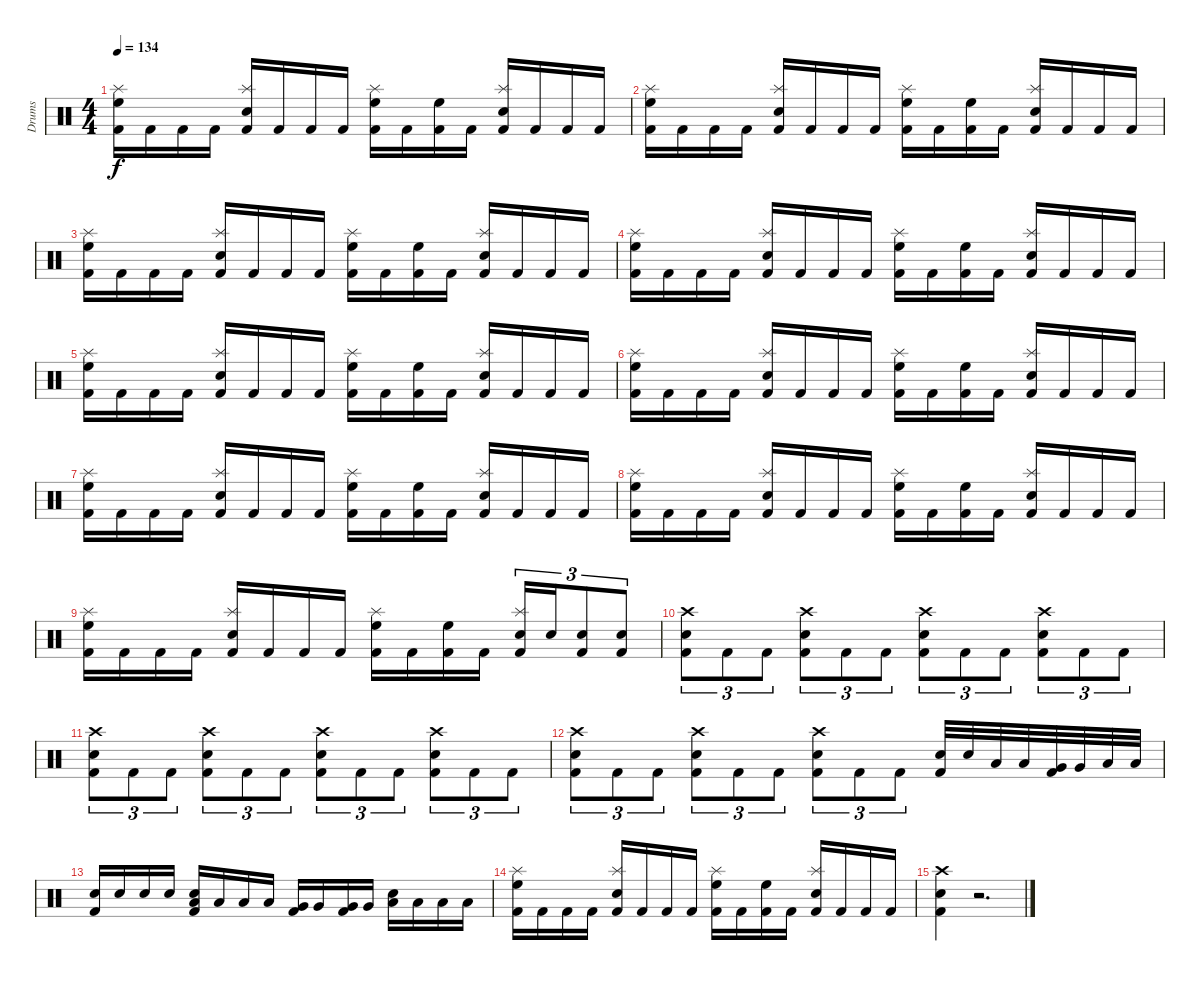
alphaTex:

\track ("Drums" "Drums") {instrument percussion}
\staff {score}
\articulation defaults
\ts (4 4)
\tempo 134
\clef neutral
\ks c
("Kick (hit) 2" "Splash (hit)" "High Floor Tom (hit)").16{dy f} "Kick (hit) 2".16 "Kick (hit) 2".16 "Kick (hit) 2".16 ("Kick (hit) 2" "Splash (hit)" "Electric Snare (hit)").16 "Kick (hit) 2".16 "Kick (hit) 2".16 "Kick (hit) 2".16 ("Kick (hit) 2" "Splash (hit)" "High Floor Tom (hit)").16 "Kick (hit) 2".16 ("Kick (hit) 2" "High Floor Tom (hit)").16 "Kick (hit) 2".16 ("Kick (hit) 2" "Splash (hit)" "Electric Snare (hit)").16 "Kick (hit) 2".16 "Kick (hit) 2".16 "Kick (hit) 2".16 |
("Kick (hit) 2" "Splash (hit)" "High Floor Tom (hit)").16 "Kick (hit) 2".16 "Kick (hit) 2".16 "Kick (hit) 2".16 ("Kick (hit) 2" "Splash (hit)" "Electric Snare (hit)").16 "Kick (hit) 2".16 "Kick (hit) 2".16 "Kick (hit) 2".16 ("Kick (hit) 2" "Splash (hit)" "High Floor Tom (hit)").16 "Kick (hit) 2".16 ("Kick (hit) 2" "High Floor Tom (hit)").16 "Kick (hit) 2".16 ("Kick (hit) 2" "Splash (hit)" "Electric Snare (hit)").16 "Kick (hit) 2".16 "Kick (hit) 2".16 "Kick (hit) 2".16 |
("Kick (hit) 2" "Splash (hit)" "High Floor Tom (hit)").16 "Kick (hit) 2".16 "Kick (hit) 2".16 "Kick (hit) 2".16 ("Kick (hit) 2" "Splash (hit)" "Electric Snare (hit)").16 "Kick (hit) 2".16 "Kick (hit) 2".16 "Kick (hit) 2".16 ("Kick (hit) 2" "Splash (hit)" "High Floor Tom (hit)").16 "Kick (hit) 2".16 ("Kick (hit) 2" "High Floor Tom (hit)").16 "Kick (hit) 2".16 ("Kick (hit) 2" "Splash (hit)" "Electric Snare (hit)").16 "Kick (hit) 2".16 "Kick (hit) 2".16 "Kick (hit) 2".16 |
("Kick (hit) 2" "Splash (hit)" "High Floor Tom (hit)").16 "Kick (hit) 2".16 "Kick (hit) 2".16 "Kick (hit) 2".16 ("Kick (hit) 2" "Splash (hit)" "Electric Snare (hit)").16 "Kick (hit) 2".16 "Kick (hit) 2".16 "Kick (hit) 2".16 ("Kick (hit) 2" "Splash (hit)" "High Floor Tom (hit)").16 "Kick (hit) 2".16 ("Kick (hit) 2" "High Floor Tom (hit)").16 "Kick (hit) 2".16 ("Kick (hit) 2" "Splash (hit)" "Electric Snare (hit)").16 "Kick (hit) 2".16 "Kick (hit) 2".16 "Kick (hit) 2".16 |
("Kick (hit) 2" "Splash (hit)" "High Floor Tom (hit)").16 "Kick (hit) 2".16 "Kick (hit) 2".16 "Kick (hit) 2".16 ("Kick (hit) 2" "Splash (hit)" "Electric Snare (hit)").16 "Kick (hit) 2".16 "Kick (hit) 2".16 "Kick (hit) 2".16 ("Kick (hit) 2" "Splash (hit)" "High Floor Tom (hit)").16 "Kick (hit) 2".16 ("Kick (hit) 2" "High Floor Tom (hit)").16 "Kick (hit) 2".16 ("Kick (hit) 2" "Splash (hit)" "Electric Snare (hit)").16 "Kick (hit) 2".16 "Kick (hit) 2".16 "Kick (hit) 2".16 |
("Kick (hit) 2" "Splash (hit)" "High Floor Tom (hit)").16 "Kick (hit) 2".16 "Kick (hit) 2".16 "Kick (hit) 2".16 ("Kick (hit) 2" "Splash (hit)" "Electric Snare (hit)").16 "Kick (hit) 2".16 "Kick (hit) 2".16 "Kick (hit) 2".16 ("Kick (hit) 2" "Splash (hit)" "High Floor Tom (hit)").16 "Kick (hit) 2".16 ("Kick (hit) 2" "High Floor Tom (hit)").16 "Kick (hit) 2".16 ("Kick (hit) 2" "Splash (hit)" "Electric Snare (hit)").16 "Kick (hit) 2".16 "Kick (hit) 2".16 "Kick (hit) 2".16 |
("Kick (hit) 2" "Splash (hit)" "High Floor Tom (hit)").16 "Kick (hit) 2".16 "Kick (hit) 2".16 "Kick (hit) 2".16 ("Kick (hit) 2" "Splash (hit)" "Electric Snare (hit)").16 "Kick (hit) 2".16 "Kick (hit) 2".16 "Kick (hit) 2".16 ("Kick (hit) 2" "Splash (hit)" "High Floor Tom (hit)").16 "Kick (hit) 2".16 ("Kick (hit) 2" "High Floor Tom (hit)").16 "Kick (hit) 2".16 ("Kick (hit) 2" "Splash (hit)" "Electric Snare (hit)").16 "Kick (hit) 2".16 "Kick (hit) 2".16 "Kick (hit) 2".16 |
("Kick (hit) 2" "Splash (hit)" "High Floor Tom (hit)").16 "Kick (hit) 2".16 "Kick (hit) 2".16 "Kick (hit) 2".16 ("Kick (hit) 2" "Splash (hit)" "Electric Snare (hit)").16 "Kick (hit) 2".16 "Kick (hit) 2".16 "Kick (hit) 2".16 ("Kick (hit) 2" "Splash (hit)" "High Floor Tom (hit)").16 "Kick (hit) 2".16 ("Kick (hit) 2" "High Floor Tom (hit)").16 "Kick (hit) 2".16 ("Kick (hit) 2" "Splash (hit)" "Electric Snare (hit)").16 "Kick (hit) 2".16 "Kick (hit) 2".16 "Kick (hit) 2".16 |
("Kick (hit) 2" "Splash (hit)" "High Floor Tom (hit)").16 "Kick (hit) 2".16 "Kick (hit) 2".16 "Kick (hit) 2".16 ("Kick (hit) 2" "Splash (hit)" "Electric Snare (hit)").16 "Kick (hit) 2".16 "Kick (hit) 2".16 "Kick (hit) 2".16 ("Kick (hit) 2" "Splash (hit)" "High Floor Tom (hit)").16 "Kick (hit) 2".16 ("Kick (hit) 2" "High Floor Tom (hit)").16 "Kick (hit) 2".16 ("Kick (hit) 2" "Splash (hit)" "Electric Snare (hit)").16{tu (3 2)} "Electric Snare (hit)".16{tu (3 2)} ("Kick (hit) 2" "Electric Snare (hit)").8{tu (3 2)} ("Kick (hit) 2" "Electric Snare (hit)").8{tu (3 2)} |
("Kick (hit) 2" "Crash high (hit)" "Electric Snare (hit)").8{tu (3 2)} "Kick (hit) 2".8{tu (3 2)} "Kick (hit) 2".8{tu (3 2)} ("Kick (hit) 2" "Crash high (hit)" "Electric Snare (hit)").8{tu (3 2)} "Kick (hit) 2".8{tu (3 2)} "Kick (hit) 2".8{tu (3 2)} ("Kick (hit) 2" "Crash high (hit)" "Electric Snare (hit)").8{tu (3 2)} "Kick (hit) 2".8{tu (3 2)} "Kick (hit) 2".8{tu (3 2)} ("Kick (hit) 2" "Crash high (hit)" "Electric Snare (hit)").8{tu (3 2)} "Kick (hit) 2".8{tu (3 2)} "Kick (hit) 2".8{tu (3 2)} |
("Kick (hit) 2" "Crash high (hit)" "Electric Snare (hit)").8{tu (3 2)} "Kick (hit) 2".8{tu (3 2)} "Kick (hit) 2".8{tu (3 2)} ("Kick (hit) 2" "Crash high (hit)" "Electric Snare (hit)").8{tu (3 2)} "Kick (hit) 2".8{tu (3 2)} "Kick (hit) 2".8{tu (3 2)} ("Kick (hit) 2" "Crash high (hit)" "Electric Snare (hit)").8{tu (3 2)} "Kick (hit) 2".8{tu (3 2)} "Kick (hit) 2".8{tu (3 2)} ("Kick (hit) 2" "Crash high (hit)" "Electric Snare (hit)").8{tu (3 2)} "Kick (hit) 2".8{tu (3 2)} "Kick (hit) 2".8{tu (3 2)} |
("Kick (hit) 2" "Crash high (hit)" "Electric Snare (hit)").8{tu (3 2)} "Kick (hit) 2".8{tu (3 2)} "Kick (hit) 2".8{tu (3 2)} ("Kick (hit) 2" "Crash high (hit)" "Electric Snare (hit)").8{tu (3 2)} "Kick (hit) 2".8{tu (3 2)} "Kick (hit) 2".8{tu (3 2)} ("Kick (hit) 2" "Crash high (hit)" "Electric Snare (hit)").8{tu (3 2)} "Kick (hit) 2".8{tu (3 2)} "Kick (hit) 2".8{tu (3 2)} ("Kick (hit) 2" "Electric Snare (hit)").32 "Electric Snare (hit)".32 "Low Tom (hit)".32 "Low Tom (hit)".32 ("Kick (hit) 2" "Very Low Tom (hit)").32 "Very Low Tom (hit)".32 "Low Floor Tom (hit)".32 "Low Floor Tom (hit)".32 |
("Kick (hit) 2" "Snare (hit) 2").16 "Snare (hit) 2".16 "Snare (hit) 2".16 "Snare (hit) 2".16 ("Kick (hit) 2" "Low Tom (hit)" "Electric Snare (hit)").16 "Low Tom (hit)".16 "Low Tom (hit)".16 "Low Tom (hit)".16 ("Kick (hit) 2" "Very Low Tom (hit)").16 "Very Low Tom (hit)".16 ("Kick (hit) 2" "Very Low Tom (hit)").16 "Very Low Tom (hit)".16 ("Low Floor Tom (hit)" "Electric Snare (hit)").16 "Low Floor Tom (hit)".16 "Low Floor Tom (hit)".16 "Low Floor Tom (hit)".16 |
("Kick (hit) 2" "Splash (hit)" "High Floor Tom (hit)").16 "Kick (hit) 2".16 "Kick (hit) 2".16 "Kick (hit) 2".16 ("Kick (hit) 2" "Splash (hit)" "Electric Snare (hit)").16 "Kick (hit) 2".16 "Kick (hit) 2".16 "Kick (hit) 2".16 ("Kick (hit) 2" "Splash (hit)" "High Floor Tom (hit)").16 "Kick (hit) 2".16 ("Kick (hit) 2" "High Floor Tom (hit)").16 "Kick (hit) 2".16 ("Kick (hit) 2" "Splash (hit)" "Electric Snare (hit)").16 "Kick (hit) 2".16 "Kick (hit) 2".16 "Kick (hit) 2".16 |
("Kick (hit) 2" "Crash high (hit)" "Electric Snare (hit)").4 r.2{d}
